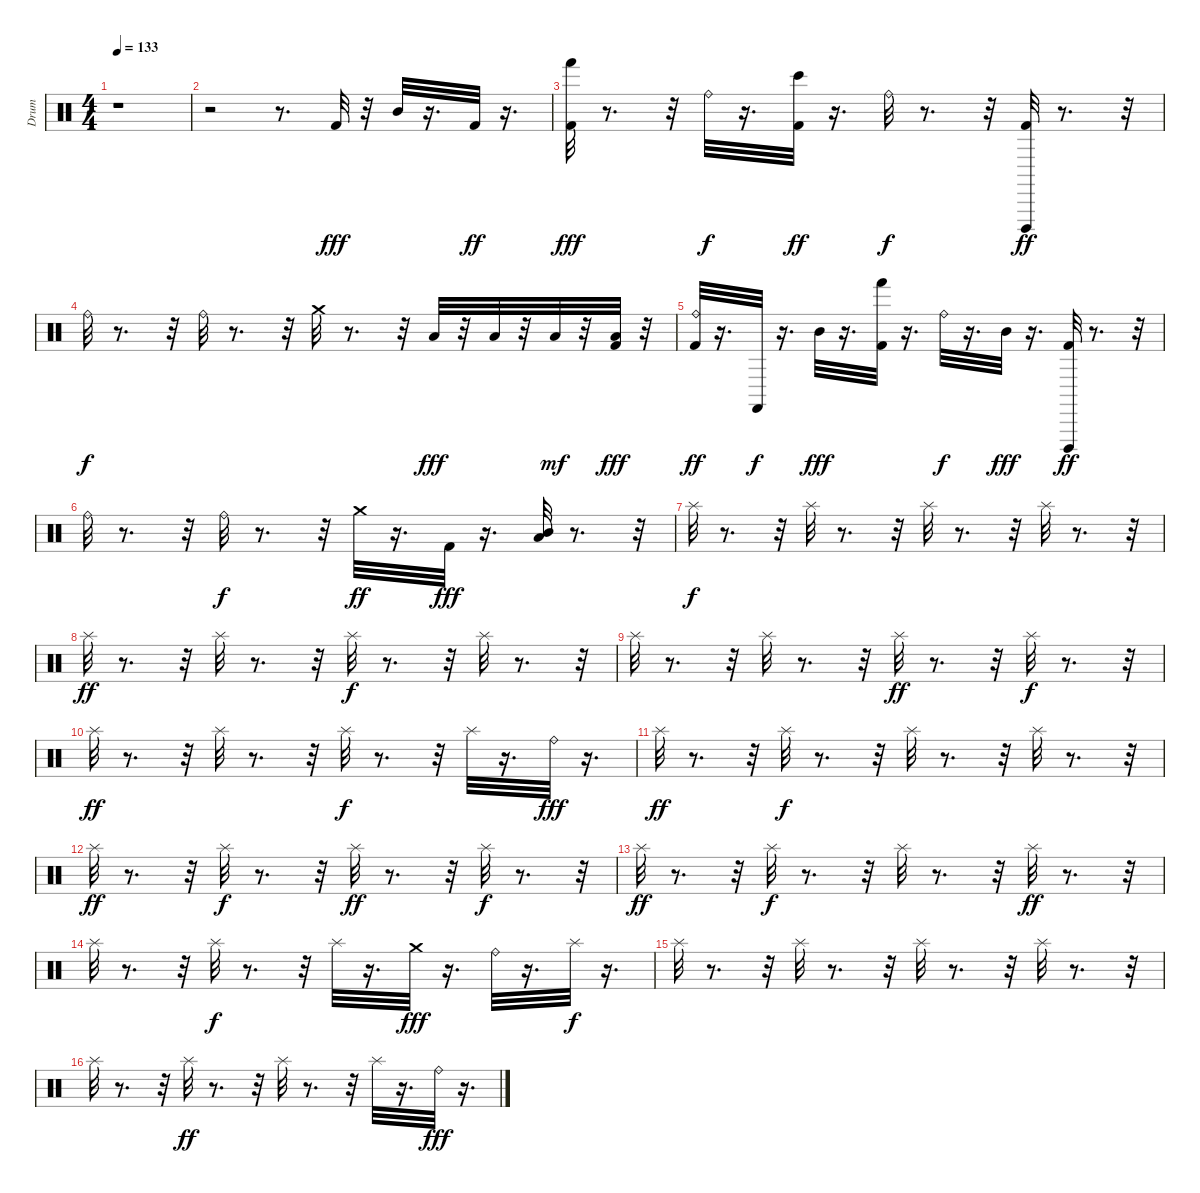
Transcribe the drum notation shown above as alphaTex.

\track ("Drum" "Drum") {instrument percussion}
\staff {score}
\articulation defaults
\ts (4 4)
\tempo 133
\clef neutral
\ks c
r.1{dy fff} |
r.2 r.8{d} "Kick (hit) 2".32 r.32 "Mid Tom (hit)".32 r.16{d} "Kick (hit) 2".32{dy ff} r.16{d} |
("Kick (hit) 2" "Hand (hit)").32{dy fff} r.8{d} r.32 "Ride (bell)".32{dy f} r.16{d} ("Kick (hit) 2" "Bongo High (hit)").32{dy ff} r.16{d} "Ride (bell)".32{dy f} r.8{d} r.32 ("Kick (hit) 2" "Cuica (open)").32{dy ff} r.8{d} r.32 |
"Ride (bell)".32{dy f} r.8{d} r.32 "Ride (bell)".32 r.8{d} r.32 "Crash medium (hit)".32 r.8{d} r.32 "Low Tom (hit)".32{dy fff} r.32 "Low Tom (hit)".32 r.32 "Low Tom (hit)".32{dy mf} r.32 ("Kick (hit) 2" "Low Tom (hit)").32{dy fff} r.32 |
("Kick (hit) 2" "Ride (bell)").32{dy ff} r.16{d} "Castanets (hit)".32{dy f} r.16{d} "Mid Tom (hit)".32{dy fff} r.16{d} ("Kick (hit) 2" "Hand (hit)").32 r.16{d} "Ride (bell)".32{dy f} r.16{d} "Mid Tom (hit)".32{dy fff} r.16{d} ("Kick (hit) 2" "Cuica (open)").32{dy ff} r.8{d} r.32 |
"Ride (bell)".32 r.8{d} r.32 "Ride (bell)".32{dy f} r.8{d} r.32 "Crash medium (hit)".32{dy ff} r.16{d} "Kick (hit) 2".32{dy fff} r.16{d} ("Low Tom (hit)" "Mid Tom (hit)").32 r.8{d} r.32 |
"Splash (hit)".32{dy f} r.8{d} r.32 "Splash (hit)".32 r.8{d} r.32 "Splash (hit)".32 r.8{d} r.32 "Splash (hit)".32 r.8{d} r.32 |
"Splash (hit)".32{dy ff} r.8{d} r.32 "Splash (hit)".32 r.8{d} r.32 "Splash (hit)".32{dy f} r.8{d} r.32 "Splash (hit)".32 r.8{d} r.32 |
"Splash (hit)".32 r.8{d} r.32 "Splash (hit)".32 r.8{d} r.32 "Splash (hit)".32{dy ff} r.8{d} r.32 "Splash (hit)".32{dy f} r.8{d} r.32 |
"Splash (hit)".32{dy ff} r.8{d} r.32 "Splash (hit)".32 r.8{d} r.32 "Splash (hit)".32{dy f} r.8{d} r.32 "Splash (hit)".32 r.16{d} "Ride (bell)".32{dy fff} r.16{d} |
"Splash (hit)".32{dy ff} r.8{d} r.32 "Splash (hit)".32{dy f} r.8{d} r.32 "Splash (hit)".32 r.8{d} r.32 "Splash (hit)".32 r.8{d} r.32 |
"Splash (hit)".32{dy ff} r.8{d} r.32 "Splash (hit)".32{dy f} r.8{d} r.32 "Splash (hit)".32{dy ff} r.8{d} r.32 "Splash (hit)".32{dy f} r.8{d} r.32 |
"Splash (hit)".32{dy ff} r.8{d} r.32 "Splash (hit)".32{dy f} r.8{d} r.32 "Splash (hit)".32 r.8{d} r.32 "Splash (hit)".32{dy ff} r.8{d} r.32 |
"Splash (hit)".32 r.8{d} r.32 "Splash (hit)".32{dy f} r.8{d} r.32 "Splash (hit)".32 r.16{d} "Crash medium (hit)".32{dy fff} r.16{d} "Ride (bell)".32 r.16{d} "Splash (hit)".32{dy f} r.16{d} |
"Splash (hit)".32 r.8{d} r.32 "Splash (hit)".32 r.8{d} r.32 "Splash (hit)".32 r.8{d} r.32 "Splash (hit)".32 r.8{d} r.32 |
"Splash (hit)".32 r.8{d} r.32 "Splash (hit)".32{dy ff} r.8{d} r.32 "Splash (hit)".32 r.8{d} r.32 "Splash (hit)".32 r.16{d} "Ride (bell)".32{dy fff} r.16{d}
